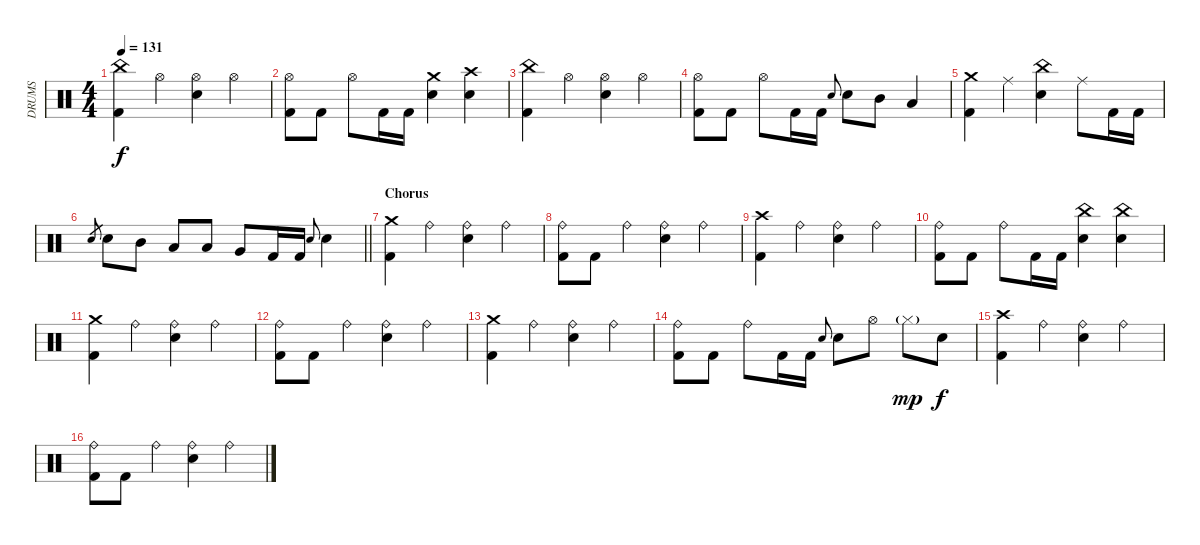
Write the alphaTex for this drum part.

\track ("DRUMS" "DRUMS") {instrument percussion}
\staff {score}
\articulation defaults
\ts (4 4)
\tempo 131
\clef neutral
\ks c
("China (hit)" "Kick (hit) 2").4{dy f} "Hi-Hat (open)".4 ("Hi-Hat (open)" "Snare (hit) 2").4 "Hi-Hat (open)".4 |
("Hi-Hat (open)" "Kick (hit) 2").8 "Kick (hit) 2".8 "Hi-Hat (open)".8 "Kick (hit) 2".16 "Kick (hit) 2".16 ("Crash medium (hit)" "Snare (hit) 2").4 ("Crash high (hit)" "Snare (hit) 2").4 |
("China (hit)" "Kick (hit) 2").4 "Hi-Hat (open)".4 ("Hi-Hat (open)" "Snare (hit) 2").4 "Hi-Hat (open)".4 |
("Hi-Hat (open)" "Kick (hit) 2").8 "Kick (hit) 2".8 "Hi-Hat (open)".8 "Kick (hit) 2".16 "Kick (hit) 2".16 "Snare (hit) 2".8{gr onbeat} "Snare (hit) 2".8 "Mid Tom (hit)".8 "Low Tom (hit)".4 |
("Crash medium (hit)" "Kick (hit) 2").4 "Ride (middle)".4 ("China (hit)" "Snare (hit) 2").4 "Ride (middle)".8 "Kick (hit) 2".16 "Kick (hit) 2".16 |
\barLineRight lightlight "Snare (hit) 2".8{gr} "Snare (hit) 2".8 "Mid Tom (hit)".8 "Low Tom (hit)".8 "Low Tom (hit)".8 "Very Low Tom (hit)".8 "Kick (hit) 2".16 "Kick (hit) 2".16 "Snare (hit) 2".8{gr onbeat} "Snare (hit) 2".4
|
\section ("" "Chorus")
("Crash medium (hit)" "Kick (hit) 2").4 "Ride (bell)".4 ("Ride (bell)" "Snare (hit) 2").4 "Ride (bell)".4 |
("Ride (bell)" "Kick (hit) 2").8 "Kick (hit) 2".8 "Ride (bell)".4 ("Ride (bell)" "Snare (hit) 2").4 "Ride (bell)".4 |
("Crash high (hit)" "Kick (hit) 2").4 "Ride (bell)".4 ("Ride (bell)" "Snare (hit) 2").4 "Ride (bell)".4 |
("Ride (bell)" "Kick (hit) 2").8 "Kick (hit) 2".8 "Ride (bell)".8 "Kick (hit) 2".16 "Kick (hit) 2".16 ("China (hit)" "Snare (hit) 2").4 ("China (hit)" "Snare (hit) 2").4 |
("Crash medium (hit)" "Kick (hit) 2").4 "Ride (bell)".4 ("Ride (bell)" "Snare (hit) 2").4 "Ride (bell)".4 |
("Ride (bell)" "Kick (hit) 2").8 "Kick (hit) 2".8 "Ride (bell)".4 ("Ride (bell)" "Snare (hit) 2").4 "Ride (bell)".4 |
("Crash medium (hit)" "Kick (hit) 2").4 "Ride (bell)".4 ("Ride (bell)" "Snare (hit) 2").4 "Ride (bell)".4 |
("Ride (bell)" "Kick (hit) 2").8 "Kick (hit) 2".8 "Ride (bell)".8 "Kick (hit) 2".16 "Kick (hit) 2".16 "Snare (hit) 2".8{gr onbeat} "Snare (hit) 2".8 "Hi-Hat (open)".8 "Hi-Hat (closed)"{g}.8{dy mp} "Snare (hit) 2".8{dy f} |
("Crash high (hit)" "Kick (hit) 2").4 "Ride (bell)".4 ("Ride (bell)" "Snare (hit) 2").4 "Ride (bell)".4 |
("Ride (bell)" "Kick (hit) 2").8 "Kick (hit) 2".8 "Ride (bell)".4 ("Ride (bell)" "Snare (hit) 2").4 "Ride (bell)".4
